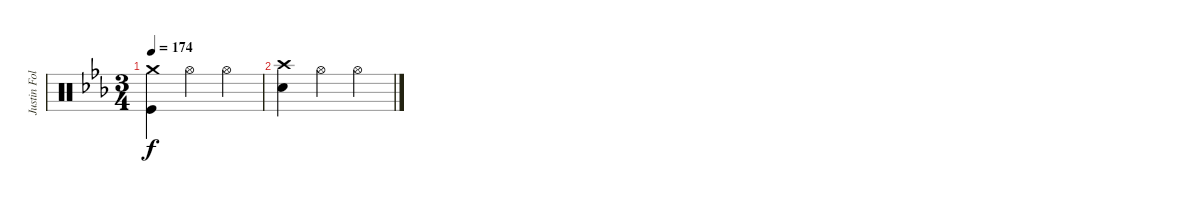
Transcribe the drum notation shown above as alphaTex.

\track ("Justin Foley" "Justin Fol") {instrument percussion}
\staff {score}
\articulation defaults
\ts (3 4)
\tempo 174
\clef neutral
\ks cminor
("Crash medium (hit)" "Kick (hit)").4{dy f} "Hi-Hat (open)".4 "Hi-Hat (open)".4 |
("Snare (hit) 2" "Crash high (hit)").4 "Hi-Hat (open)".4 "Hi-Hat (open)".4
